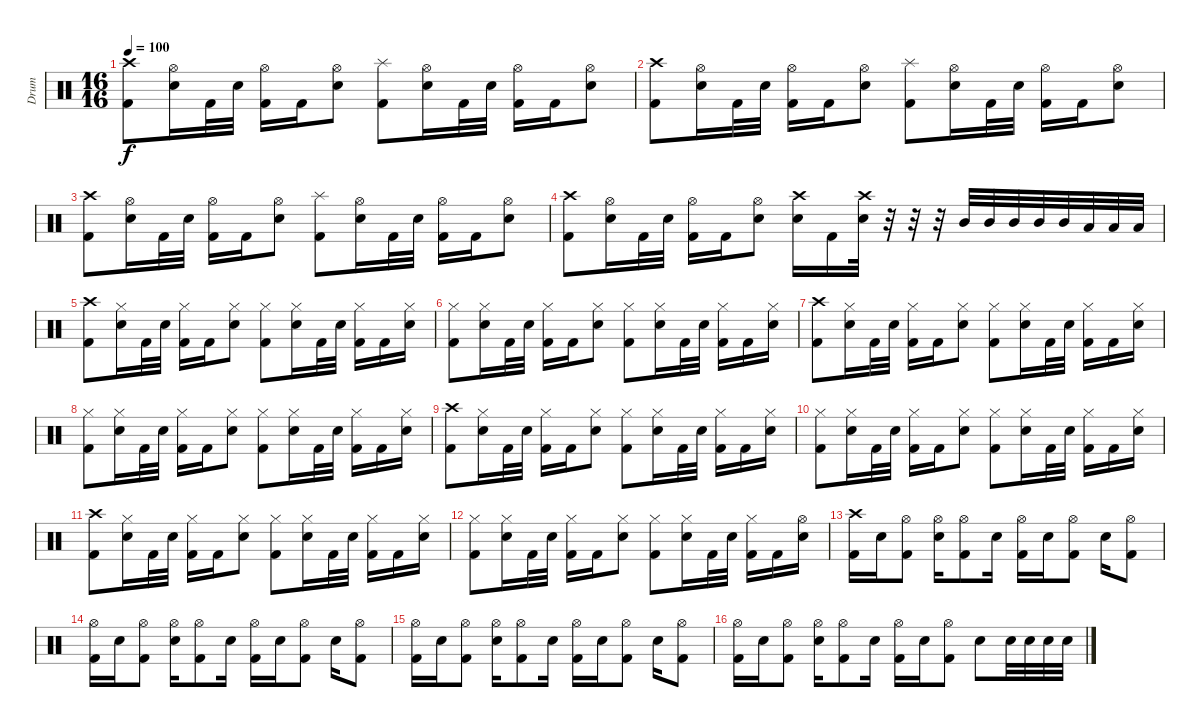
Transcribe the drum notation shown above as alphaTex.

\track ("Drum" "Drum") {instrument percussion}
\staff {score}
\articulation defaults
\ts (16 16)
\tempo 100
\clef neutral
\ks aminor
("Crash high (hit)" "Kick (hit) 2").8{dy f} ("Hi-Hat (open)" "Snare (hit) 2").16 "Kick (hit) 2".32 "Snare (hit) 2".32 ("Hi-Hat (open)" "Kick (hit) 2").16 "Kick (hit) 2".16 ("Hi-Hat (open)" "Snare (hit) 2").8 ("Splash (hit)" "Kick (hit) 2").8 ("Hi-Hat (open)" "Snare (hit) 2").16 "Kick (hit) 2".32 "Snare (hit) 2".32 ("Hi-Hat (open)" "Kick (hit) 2").16 "Kick (hit) 2".16 ("Hi-Hat (open)" "Snare (hit) 2").8 |
("Crash high (hit)" "Kick (hit) 2").8 ("Hi-Hat (open)" "Snare (hit) 2").16 "Kick (hit) 2".32 "Snare (hit) 2".32 ("Hi-Hat (open)" "Kick (hit) 2").16 "Kick (hit) 2".16 ("Hi-Hat (open)" "Snare (hit) 2").8 ("Splash (hit)" "Kick (hit) 2").8 ("Hi-Hat (open)" "Snare (hit) 2").16 "Kick (hit) 2".32 "Snare (hit) 2".32 ("Hi-Hat (open)" "Kick (hit) 2").16 "Kick (hit) 2".16 ("Hi-Hat (open)" "Snare (hit) 2").8 |
("Crash high (hit)" "Kick (hit) 2").8 ("Hi-Hat (open)" "Snare (hit) 2").16 "Kick (hit) 2".32 "Snare (hit) 2".32 ("Hi-Hat (open)" "Kick (hit) 2").16 "Kick (hit) 2".16 ("Hi-Hat (open)" "Snare (hit) 2").8 ("Splash (hit)" "Kick (hit) 2").8 ("Hi-Hat (open)" "Snare (hit) 2").16 "Kick (hit) 2".32 "Snare (hit) 2".32 ("Hi-Hat (open)" "Kick (hit) 2").16 "Kick (hit) 2".16 ("Hi-Hat (open)" "Snare (hit) 2").8 |
("Crash high (hit)" "Kick (hit) 2").8 ("Hi-Hat (open)" "Snare (hit) 2").16 "Kick (hit) 2".32 "Snare (hit) 2".32 ("Hi-Hat (open)" "Kick (hit) 2").16 "Kick (hit) 2".16 ("Hi-Hat (open)" "Snare (hit) 2").8 ("Crash high (hit)" "Snare (hit) 2").16 "Kick (hit) 2".16 ("Crash high (hit)" "Snare (hit) 2").32 r.32 r.32 r.32 "Mid Tom (hit)".32 "Mid Tom (hit)".32 "Mid Tom (hit)".32 "Mid Tom (hit)".32 "Mid Tom (hit)".32 "Low Tom (hit)".32 "Low Tom (hit)".32 "Low Tom (hit)".32 |
("Crash high (hit)" "Kick (hit) 2").8 ("Hi-Hat (closed)" "Snare (hit) 2").16 "Kick (hit) 2".32 "Snare (hit) 2".32 ("Hi-Hat (closed)" "Kick (hit) 2").16 "Kick (hit) 2".16 ("Hi-Hat (closed)" "Snare (hit) 2").8 ("Hi-Hat (closed)" "Kick (hit) 2").8 ("Hi-Hat (closed)" "Snare (hit) 2").16 "Kick (hit) 2".32 "Snare (hit) 2".32 ("Hi-Hat (closed)" "Kick (hit) 2").16 "Kick (hit) 2".16 ("Hi-Hat (closed)" "Snare (hit) 2").16 |
("Hi-Hat (closed)" "Kick (hit) 2").8 ("Hi-Hat (closed)" "Snare (hit) 2").16 "Kick (hit) 2".32 "Snare (hit) 2".32 ("Hi-Hat (closed)" "Kick (hit) 2").16 "Kick (hit) 2".16 ("Hi-Hat (closed)" "Snare (hit) 2").8 ("Hi-Hat (closed)" "Kick (hit) 2").8 ("Hi-Hat (closed)" "Snare (hit) 2").16 "Kick (hit) 2".32 "Snare (hit) 2".32 ("Hi-Hat (closed)" "Kick (hit) 2").16 "Kick (hit) 2".16 ("Hi-Hat (closed)" "Snare (hit) 2").16 |
("Crash high (hit)" "Kick (hit) 2").8 ("Hi-Hat (closed)" "Snare (hit) 2").16 "Kick (hit) 2".32 "Snare (hit) 2".32 ("Hi-Hat (closed)" "Kick (hit) 2").16 "Kick (hit) 2".16 ("Hi-Hat (closed)" "Snare (hit) 2").8 ("Hi-Hat (closed)" "Kick (hit) 2").8 ("Hi-Hat (closed)" "Snare (hit) 2").16 "Kick (hit) 2".32 "Snare (hit) 2".32 ("Hi-Hat (closed)" "Kick (hit) 2").16 "Kick (hit) 2".16 ("Hi-Hat (closed)" "Snare (hit) 2").16 |
("Hi-Hat (closed)" "Kick (hit) 2").8 ("Hi-Hat (closed)" "Snare (hit) 2").16 "Kick (hit) 2".32 "Snare (hit) 2".32 ("Hi-Hat (closed)" "Kick (hit) 2").16 "Kick (hit) 2".16 ("Hi-Hat (closed)" "Snare (hit) 2").8 ("Hi-Hat (closed)" "Kick (hit) 2").8 ("Hi-Hat (closed)" "Snare (hit) 2").16 "Kick (hit) 2".32 "Snare (hit) 2".32 ("Hi-Hat (closed)" "Kick (hit) 2").16 "Kick (hit) 2".16 ("Hi-Hat (closed)" "Snare (hit) 2").16 |
("Crash high (hit)" "Kick (hit) 2").8 ("Hi-Hat (closed)" "Snare (hit) 2").16 "Kick (hit) 2".32 "Snare (hit) 2".32 ("Hi-Hat (closed)" "Kick (hit) 2").16 "Kick (hit) 2".16 ("Hi-Hat (closed)" "Snare (hit) 2").8 ("Hi-Hat (closed)" "Kick (hit) 2").8 ("Hi-Hat (closed)" "Snare (hit) 2").16 "Kick (hit) 2".32 "Snare (hit) 2".32 ("Hi-Hat (closed)" "Kick (hit) 2").16 "Kick (hit) 2".16 ("Hi-Hat (closed)" "Snare (hit) 2").16 |
("Hi-Hat (closed)" "Kick (hit) 2").8 ("Hi-Hat (closed)" "Snare (hit) 2").16 "Kick (hit) 2".32 "Snare (hit) 2".32 ("Hi-Hat (closed)" "Kick (hit) 2").16 "Kick (hit) 2".16 ("Hi-Hat (closed)" "Snare (hit) 2").8 ("Hi-Hat (closed)" "Kick (hit) 2").8 ("Hi-Hat (closed)" "Snare (hit) 2").16 "Kick (hit) 2".32 "Snare (hit) 2".32 ("Hi-Hat (closed)" "Kick (hit) 2").16 "Kick (hit) 2".16 ("Hi-Hat (closed)" "Snare (hit) 2").16 |
("Crash high (hit)" "Kick (hit) 2").8 ("Hi-Hat (closed)" "Snare (hit) 2").16 "Kick (hit) 2".32 "Snare (hit) 2".32 ("Hi-Hat (closed)" "Kick (hit) 2").16 "Kick (hit) 2".16 ("Hi-Hat (closed)" "Snare (hit) 2").8 ("Hi-Hat (closed)" "Kick (hit) 2").8 ("Hi-Hat (closed)" "Snare (hit) 2").16 "Kick (hit) 2".32 "Snare (hit) 2".32 ("Hi-Hat (closed)" "Kick (hit) 2").16 "Kick (hit) 2".16 ("Hi-Hat (closed)" "Snare (hit) 2").16 |
("Hi-Hat (closed)" "Kick (hit) 2").8 ("Hi-Hat (closed)" "Snare (hit) 2").16 "Kick (hit) 2".32 "Snare (hit) 2".32 ("Hi-Hat (closed)" "Kick (hit) 2").16 "Kick (hit) 2".16 ("Hi-Hat (closed)" "Snare (hit) 2").8 ("Hi-Hat (closed)" "Kick (hit) 2").8 ("Hi-Hat (closed)" "Snare (hit) 2").16 "Kick (hit) 2".32 "Snare (hit) 2".32 ("Hi-Hat (closed)" "Kick (hit) 2").16 "Kick (hit) 2".16 ("Hi-Hat (open)" "Snare (hit) 2").16 |
("Crash high (hit)" "Kick (hit) 2").16 "Snare (hit) 2".16 ("Hi-Hat (open)" "Kick (hit) 2").8 ("Hi-Hat (open)" "Snare (hit) 2").16 ("Hi-Hat (open)" "Kick (hit) 2").8 "Snare (hit) 2".16 ("Hi-Hat (open)" "Kick (hit) 2").16 "Snare (hit) 2".16 ("Hi-Hat (open)" "Kick (hit) 2").8 "Snare (hit) 2".16 ("Hi-Hat (open)" "Kick (hit) 2").8 |
("Hi-Hat (open)" "Kick (hit) 2").16 "Snare (hit) 2".16 ("Hi-Hat (open)" "Kick (hit) 2").8 ("Hi-Hat (open)" "Snare (hit) 2").16 ("Hi-Hat (open)" "Kick (hit) 2").8 "Snare (hit) 2".16 ("Hi-Hat (open)" "Kick (hit) 2").16 "Snare (hit) 2".16 ("Hi-Hat (open)" "Kick (hit) 2").8 "Snare (hit) 2".16 ("Hi-Hat (open)" "Kick (hit) 2").8 |
("Hi-Hat (open)" "Kick (hit) 2").16 "Snare (hit) 2".16 ("Hi-Hat (open)" "Kick (hit) 2").8 ("Hi-Hat (open)" "Snare (hit) 2").16 ("Hi-Hat (open)" "Kick (hit) 2").8 "Snare (hit) 2".16 ("Hi-Hat (open)" "Kick (hit) 2").16 "Snare (hit) 2".16 ("Hi-Hat (open)" "Kick (hit) 2").8 "Snare (hit) 2".16 ("Hi-Hat (open)" "Kick (hit) 2").8 |
("Hi-Hat (open)" "Kick (hit) 2").16 "Snare (hit) 2".16 ("Hi-Hat (open)" "Kick (hit) 2").8 ("Hi-Hat (open)" "Snare (hit) 2").16 ("Hi-Hat (open)" "Kick (hit) 2").8 "Snare (hit) 2".16 ("Hi-Hat (open)" "Kick (hit) 2").16 "Snare (hit) 2".16 ("Hi-Hat (open)" "Kick (hit) 2").8 "Snare (hit) 2".8 "Snare (hit) 2".32 "Snare (hit) 2".32 "Snare (hit) 2".32 "Snare (hit) 2".32
